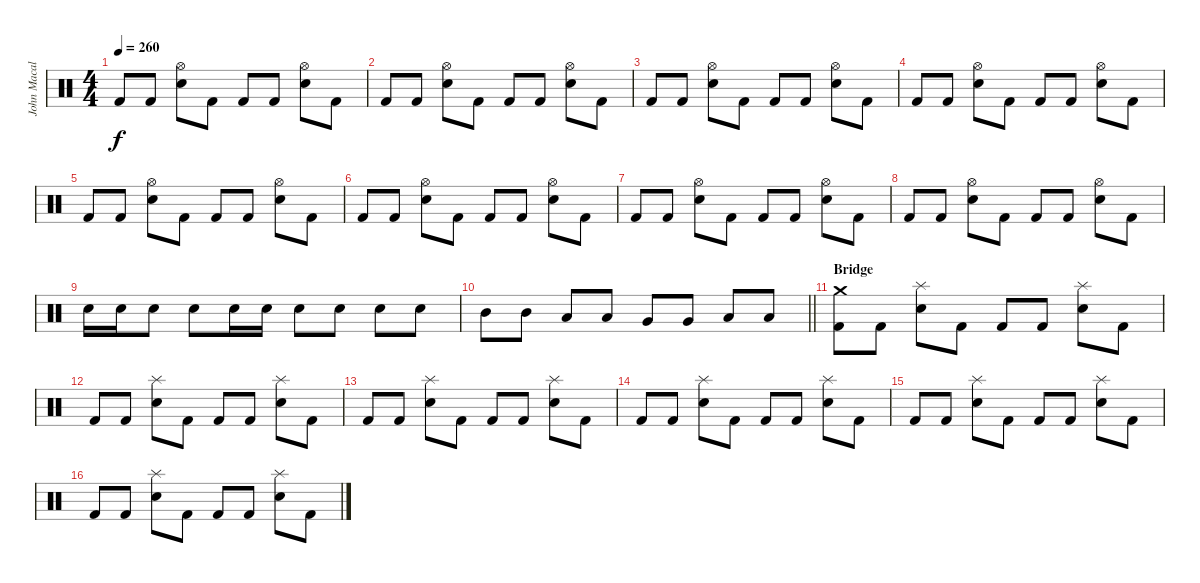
\track ("John Macaluso" "John Macal") {instrument percussion}
\staff {score}
\articulation defaults
\ts (4 4)
\tempo 260
\clef neutral
\ks c "Kick (hit) 2".8{dy f} "Kick (hit) 2".8
("Hi-Hat (open)" "Snare (hit) 2").8 "Kick (hit) 2".8 "Kick (hit) 2".8 "Kick (hit) 2".8 ("Hi-Hat (open)" "Snare (hit) 2").8 "Kick (hit) 2".8 |
"Kick (hit) 2".8 "Kick (hit) 2".8 ("Hi-Hat (open)" "Snare (hit) 2").8 "Kick (hit) 2".8 "Kick (hit) 2".8 "Kick (hit) 2".8 ("Hi-Hat (open)" "Snare (hit) 2").8 "Kick (hit) 2".8 |
"Kick (hit) 2".8 "Kick (hit) 2".8 ("Hi-Hat (open)" "Snare (hit) 2").8 "Kick (hit) 2".8 "Kick (hit) 2".8 "Kick (hit) 2".8 ("Hi-Hat (open)" "Snare (hit) 2").8 "Kick (hit) 2".8 |
"Kick (hit) 2".8 "Kick (hit) 2".8 ("Hi-Hat (open)" "Snare (hit) 2").8 "Kick (hit) 2".8 "Kick (hit) 2".8 "Kick (hit) 2".8 ("Hi-Hat (open)" "Snare (hit) 2").8 "Kick (hit) 2".8 |
"Kick (hit) 2".8 "Kick (hit) 2".8 ("Hi-Hat (open)" "Snare (hit) 2").8 "Kick (hit) 2".8 "Kick (hit) 2".8 "Kick (hit) 2".8 ("Hi-Hat (open)" "Snare (hit) 2").8 "Kick (hit) 2".8 |
"Kick (hit) 2".8 "Kick (hit) 2".8 ("Hi-Hat (open)" "Snare (hit) 2").8 "Kick (hit) 2".8 "Kick (hit) 2".8 "Kick (hit) 2".8 ("Hi-Hat (open)" "Snare (hit) 2").8 "Kick (hit) 2".8 |
"Kick (hit) 2".8 "Kick (hit) 2".8 ("Hi-Hat (open)" "Snare (hit) 2").8 "Kick (hit) 2".8 "Kick (hit) 2".8 "Kick (hit) 2".8 ("Hi-Hat (open)" "Snare (hit) 2").8 "Kick (hit) 2".8 |
"Kick (hit) 2".8 "Kick (hit) 2".8 ("Hi-Hat (open)" "Snare (hit) 2").8 "Kick (hit) 2".8 "Kick (hit) 2".8 "Kick (hit) 2".8 ("Hi-Hat (open)" "Snare (hit) 2").8 "Kick (hit) 2".8 |
"Snare (hit) 2".16 "Snare (hit) 2".16 "Snare (hit) 2".8 "Snare (hit) 2".8 "Snare (hit) 2".16 "Snare (hit) 2".16 "Snare (hit) 2".8 "Snare (hit) 2".8 "Snare (hit) 2".8 "Snare (hit) 2".8 |
\barLineRight lightlight "Mid Tom (hit)".8 "Mid Tom (hit)".8 "Low Tom (hit)".8 "Low Tom (hit)".8 "Very Low Tom (hit)".8 "Very Low Tom (hit)".8 "Low Floor Tom (hit)".8 "Low Floor Tom (hit)".8
|
\section ("" "Bridge")
("Crash medium (hit)" "Kick (hit) 2").8 "Kick (hit) 2".8 ("Splash (hit)" "Snare (hit) 2").8 "Kick (hit) 2".8 "Kick (hit) 2".8 "Kick (hit) 2".8 ("Splash (hit)" "Snare (hit) 2").8 "Kick (hit) 2".8 |
"Kick (hit) 2".8 "Kick (hit) 2".8 ("Splash (hit)" "Snare (hit) 2").8 "Kick (hit) 2".8 "Kick (hit) 2".8 "Kick (hit) 2".8 ("Splash (hit)" "Snare (hit) 2").8 "Kick (hit) 2".8 |
"Kick (hit) 2".8 "Kick (hit) 2".8 ("Splash (hit)" "Snare (hit) 2").8 "Kick (hit) 2".8 "Kick (hit) 2".8 "Kick (hit) 2".8 ("Splash (hit)" "Snare (hit) 2").8 "Kick (hit) 2".8 |
"Kick (hit) 2".8 "Kick (hit) 2".8 ("Splash (hit)" "Snare (hit) 2").8 "Kick (hit) 2".8 "Kick (hit) 2".8 "Kick (hit) 2".8 ("Splash (hit)" "Snare (hit) 2").8 "Kick (hit) 2".8 |
"Kick (hit) 2".8 "Kick (hit) 2".8 ("Splash (hit)" "Snare (hit) 2").8 "Kick (hit) 2".8 "Kick (hit) 2".8 "Kick (hit) 2".8 ("Splash (hit)" "Snare (hit) 2").8 "Kick (hit) 2".8 |
"Kick (hit) 2".8 "Kick (hit) 2".8 ("Splash (hit)" "Snare (hit) 2").8 "Kick (hit) 2".8 "Kick (hit) 2".8 "Kick (hit) 2".8 ("Splash (hit)" "Snare (hit) 2").8 "Kick (hit) 2".8
